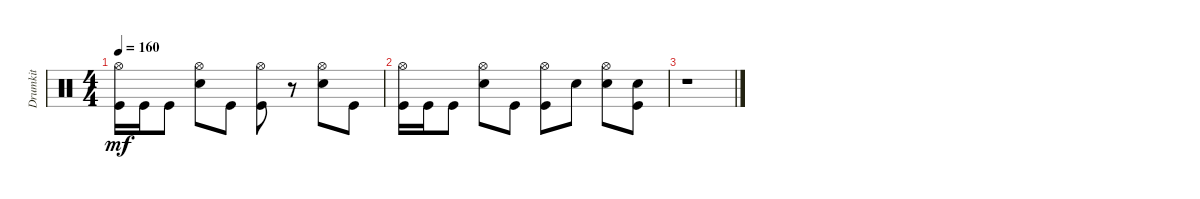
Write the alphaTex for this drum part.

\track ("Drumkit" "Drumkit") {instrument percussion}
\staff {score}
\articulation defaults
\ts (4 4)
\tempo 160
\clef neutral
\ks c
("Hi-Hat (open)" "Kick (hit)").16{dy mf} "Kick (hit)".16 "Kick (hit)".8 ("Hi-Hat (open)" "Snare (hit) 2").8 "Kick (hit)".8 ("Hi-Hat (open)" "Kick (hit)").8 r.8 ("Hi-Hat (open)" "Snare (hit) 2").8 "Kick (hit)".8 |
("Hi-Hat (open)" "Kick (hit)").16 "Kick (hit)".16 "Kick (hit)".8 ("Hi-Hat (open)" "Snare (hit) 2").8 "Kick (hit)".8 ("Hi-Hat (open)" "Kick (hit)").8 "Snare (hit) 2".8 ("Hi-Hat (open)" "Snare (hit) 2").8 ("Kick (hit)" "Snare (hit) 2").8 |
r.1
